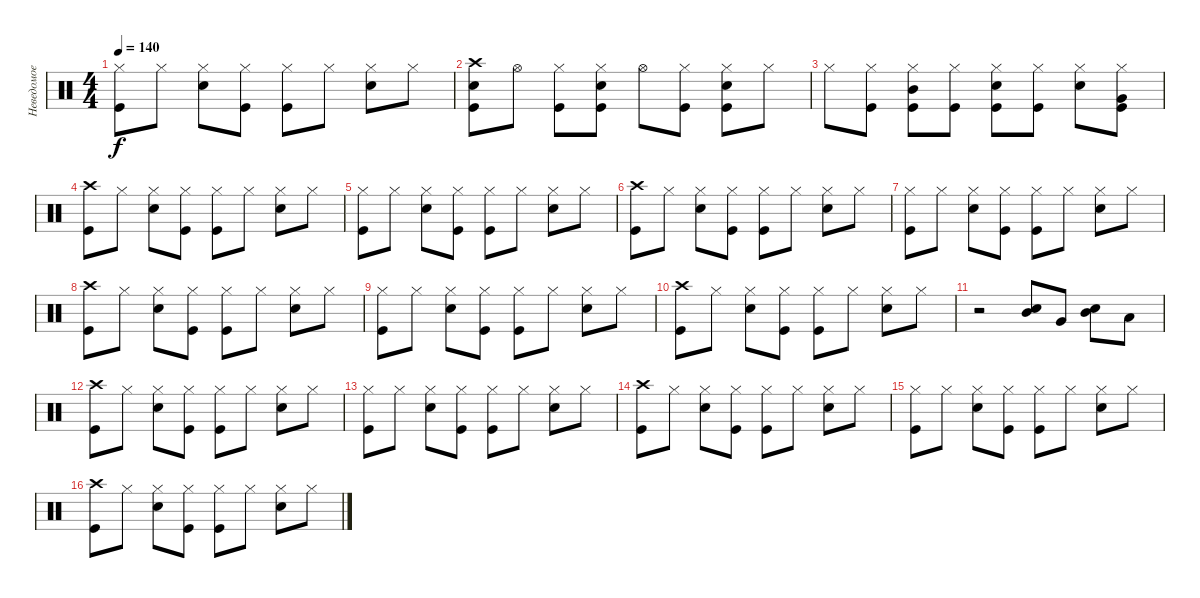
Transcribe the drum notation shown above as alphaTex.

\track ("Неведомое существо" "Неведомое ") {instrument percussion}
\staff {score}
\articulation defaults
\ts (4 4)
\tempo 140
\clef neutral
\ks c
("Hi-Hat (closed)" "Kick (hit)").8{dy f} "Hi-Hat (closed)".8 ("Hi-Hat (closed)" "Snare (hit) 2").8 ("Hi-Hat (closed)" "Kick (hit)").8 ("Hi-Hat (closed)" "Kick (hit)").8 "Hi-Hat (closed)".8 ("Hi-Hat (closed)" "Snare (hit) 2").8 "Hi-Hat (closed)".8 |
("Crash high (hit)" "Snare (hit) 2" "Kick (hit)").8 "Hi-Hat (open)".8 ("Hi-Hat (closed)" "Kick (hit)").8 ("Hi-Hat (closed)" "Snare (hit) 2" "Kick (hit)").8 "Hi-Hat (open)".8 ("Hi-Hat (closed)" "Kick (hit)").8 ("Hi-Hat (closed)" "Snare (hit) 2" "Kick (hit)").8 "Hi-Hat (closed)".8 |
"Hi-Hat (closed)".8 ("Hi-Hat (closed)" "Kick (hit)").8 ("Hi-Hat (closed)" "Mid Tom (hit)" "Kick (hit)").8 ("Hi-Hat (closed)" "Kick (hit)").8 ("Hi-Hat (closed)" "Snare (hit) 2" "Kick (hit)").8 ("Hi-Hat (closed)" "Kick (hit)").8 ("Hi-Hat (closed)" "Snare (hit) 2").8 ("Hi-Hat (closed)" "Very Low Tom (hit)" "Kick (hit)").8 |
("Crash high (hit)" "Kick (hit)").8 "Hi-Hat (closed)".8 ("Hi-Hat (closed)" "Snare (hit) 2").8 ("Hi-Hat (closed)" "Kick (hit)").8 ("Hi-Hat (closed)" "Kick (hit)").8 "Hi-Hat (closed)".8 ("Hi-Hat (closed)" "Snare (hit) 2").8 "Hi-Hat (closed)".8 |
("Hi-Hat (closed)" "Kick (hit)").8 "Hi-Hat (closed)".8 ("Hi-Hat (closed)" "Snare (hit) 2").8 ("Hi-Hat (closed)" "Kick (hit)").8 ("Hi-Hat (closed)" "Kick (hit)").8 "Hi-Hat (closed)".8 ("Hi-Hat (closed)" "Snare (hit) 2").8 "Hi-Hat (closed)".8 |
("Crash high (hit)" "Kick (hit)").8 "Hi-Hat (closed)".8 ("Hi-Hat (closed)" "Snare (hit) 2").8 ("Hi-Hat (closed)" "Kick (hit)").8 ("Hi-Hat (closed)" "Kick (hit)").8 "Hi-Hat (closed)".8 ("Hi-Hat (closed)" "Snare (hit) 2").8 "Hi-Hat (closed)".8 |
("Hi-Hat (closed)" "Kick (hit)").8 "Hi-Hat (closed)".8 ("Hi-Hat (closed)" "Snare (hit) 2").8 ("Hi-Hat (closed)" "Kick (hit)").8 ("Hi-Hat (closed)" "Kick (hit)").8 "Hi-Hat (closed)".8 ("Hi-Hat (closed)" "Snare (hit) 2").8 "Hi-Hat (closed)".8 |
("Crash high (hit)" "Kick (hit)").8 "Hi-Hat (closed)".8 ("Hi-Hat (closed)" "Snare (hit) 2").8 ("Hi-Hat (closed)" "Kick (hit)").8 ("Hi-Hat (closed)" "Kick (hit)").8 "Hi-Hat (closed)".8 ("Hi-Hat (closed)" "Snare (hit) 2").8 "Hi-Hat (closed)".8 |
("Hi-Hat (closed)" "Kick (hit)").8 "Hi-Hat (closed)".8 ("Hi-Hat (closed)" "Snare (hit) 2").8 ("Hi-Hat (closed)" "Kick (hit)").8 ("Hi-Hat (closed)" "Kick (hit)").8 "Hi-Hat (closed)".8 ("Hi-Hat (closed)" "Snare (hit) 2").8 "Hi-Hat (closed)".8 |
("Crash high (hit)" "Kick (hit)").8 "Hi-Hat (closed)".8 ("Hi-Hat (closed)" "Snare (hit) 2").8 ("Hi-Hat (closed)" "Kick (hit)").8 ("Hi-Hat (closed)" "Kick (hit)").8 "Hi-Hat (closed)".8 ("Hi-Hat (closed)" "Snare (hit) 2").8 "Hi-Hat (closed)".8 |
r.2 ("Snare (hit) 2" "Mid Tom (hit)").8 "Very Low Tom (hit)".8 ("Snare (hit) 2" "Mid Tom (hit)").8 "Low Floor Tom (hit)".8 |
("Crash high (hit)" "Kick (hit)").8 "Hi-Hat (closed)".8 ("Hi-Hat (closed)" "Snare (hit) 2").8 ("Hi-Hat (closed)" "Kick (hit)").8 ("Hi-Hat (closed)" "Kick (hit)").8 "Hi-Hat (closed)".8 ("Hi-Hat (closed)" "Snare (hit) 2").8 "Hi-Hat (closed)".8 |
("Hi-Hat (closed)" "Kick (hit)").8 "Hi-Hat (closed)".8 ("Hi-Hat (closed)" "Snare (hit) 2").8 ("Hi-Hat (closed)" "Kick (hit)").8 ("Hi-Hat (closed)" "Kick (hit)").8 "Hi-Hat (closed)".8 ("Hi-Hat (closed)" "Snare (hit) 2").8 "Hi-Hat (closed)".8 |
("Crash high (hit)" "Kick (hit)").8 "Hi-Hat (closed)".8 ("Hi-Hat (closed)" "Snare (hit) 2").8 ("Hi-Hat (closed)" "Kick (hit)").8 ("Hi-Hat (closed)" "Kick (hit)").8 "Hi-Hat (closed)".8 ("Hi-Hat (closed)" "Snare (hit) 2").8 "Hi-Hat (closed)".8 |
("Hi-Hat (closed)" "Kick (hit)").8 "Hi-Hat (closed)".8 ("Hi-Hat (closed)" "Snare (hit) 2").8 ("Hi-Hat (closed)" "Kick (hit)").8 ("Hi-Hat (closed)" "Kick (hit)").8 "Hi-Hat (closed)".8 ("Hi-Hat (closed)" "Snare (hit) 2").8 "Hi-Hat (closed)".8 |
("Crash high (hit)" "Kick (hit)").8 "Hi-Hat (closed)".8 ("Hi-Hat (closed)" "Snare (hit) 2").8 ("Hi-Hat (closed)" "Kick (hit)").8 ("Hi-Hat (closed)" "Kick (hit)").8 "Hi-Hat (closed)".8 ("Hi-Hat (closed)" "Snare (hit) 2").8 "Hi-Hat (closed)".8
